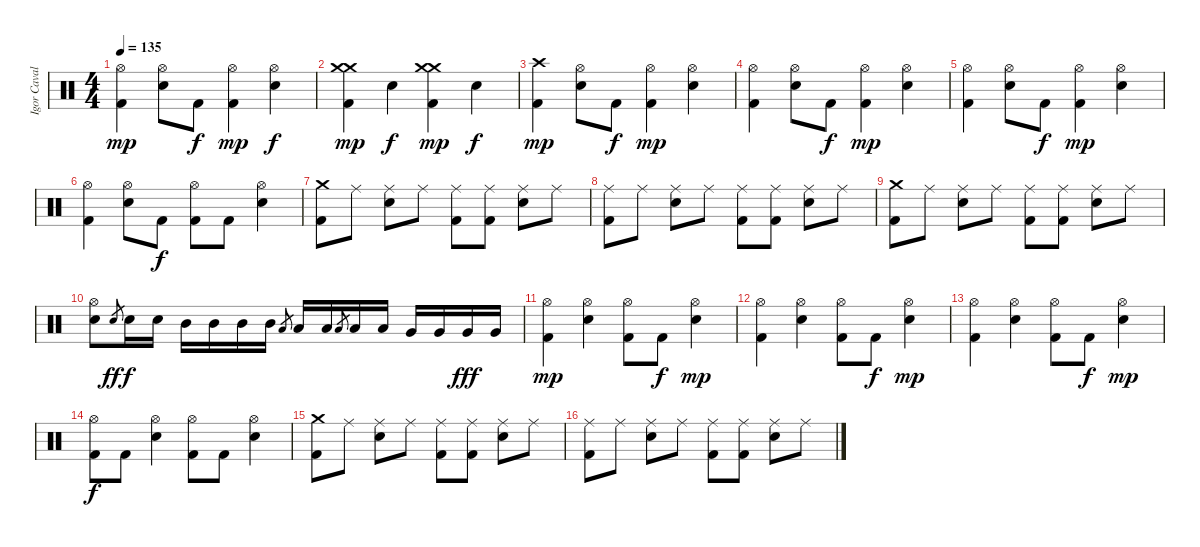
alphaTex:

\track ("Igor Cavalera" "Igor Caval") {instrument percussion}
\staff {score}
\articulation defaults
\ts (4 4)
\tempo 135
\clef neutral
\ks c
("Hi-Hat (open)" "Kick (hit) 2").4{dy mp} ("Hi-Hat (open)" "Electric Snare (hit)").8 "Kick (hit) 2".8{dy f} ("Hi-Hat (open)" "Kick (hit) 2").4{dy mp} ("Hi-Hat (open)" "Snare (hit) 2").4{dy f} |
("Crash medium (hit)" "Crash medium (hit)" "Kick (hit) 2").4{dy mp} "Electric Snare (hit)".4{dy f} ("Crash medium (hit)" "Crash medium (hit)" "Kick (hit) 2").4{dy mp} "Electric Snare (hit)".4{dy f} |
("Crash high (hit)" "Kick (hit) 2").4{dy mp} ("Hi-Hat (open)" "Electric Snare (hit)").8 "Kick (hit) 2".8{dy f} ("Hi-Hat (open)" "Kick (hit) 2").4{dy mp} ("Hi-Hat (open)" "Electric Snare (hit)").4 |
("Hi-Hat (open)" "Kick (hit) 2").4 ("Hi-Hat (open)" "Electric Snare (hit)").8 "Kick (hit) 2".8{dy f} ("Hi-Hat (open)" "Kick (hit) 2").4{dy mp} ("Hi-Hat (open)" "Electric Snare (hit)").4 |
("Hi-Hat (open)" "Kick (hit) 2").4 ("Hi-Hat (open)" "Electric Snare (hit)").8 "Kick (hit) 2".8{dy f} ("Hi-Hat (open)" "Kick (hit) 2").4{dy mp} ("Hi-Hat (open)" "Electric Snare (hit)").4 |
("Hi-Hat (open)" "Kick (hit) 2").4 ("Hi-Hat (open)" "Electric Snare (hit)").8 "Kick (hit) 2".8{dy f} ("Hi-Hat (open)" "Kick (hit) 2").8 "Kick (hit) 2".8 ("Hi-Hat (open)" "Electric Snare (hit)").4 |
("Crash medium (hit)" "Kick (hit) 2").8 "Ride (middle)".8 ("Ride (middle)" "Electric Snare (hit)").8 "Ride (middle)".8 ("Ride (middle)" "Kick (hit) 2").8 ("Ride (middle)" "Kick (hit) 2").8 ("Ride (middle)" "Electric Snare (hit)").8 "Ride (middle)".8 |
("Ride (middle)" "Kick (hit) 2").8 "Ride (middle)".8 ("Ride (middle)" "Electric Snare (hit)").8 "Ride (middle)".8 ("Ride (middle)" "Kick (hit) 2").8 ("Ride (middle)" "Kick (hit) 2").8 ("Ride (middle)" "Electric Snare (hit)").8 "Ride (middle)".8 |
("Crash medium (hit)" "Kick (hit) 2").8 "Ride (middle)".8 ("Ride (middle)" "Electric Snare (hit)").8 "Ride (middle)".8 ("Ride (middle)" "Kick (hit) 2").8 ("Ride (middle)" "Kick (hit) 2").8 ("Ride (middle)" "Electric Snare (hit)").8 "Ride (middle)".8 |
("Hi-Hat (open)" "Snare (hit) 2").8 "Snare (hit) 2".8{gr dy ff} "Snare (hit) 2".16{dy f} "Snare (hit) 2".16 "Mid Tom (hit)".16 "Mid Tom (hit)".16 "Mid Tom (hit)".16 "Mid Tom (hit)".16 "Low Tom (hit)".8{gr} "Low Tom (hit)".16 "Low Tom (hit)".16 "Low Tom (hit)".8{gr} "Low Tom (hit)".16 "Low Tom (hit)".16 "Very Low Tom (hit)".16 "Very Low Tom (hit)".16 "Very Low Tom (hit)".16{dy fff} "Very Low Tom (hit)".16 |
("Hi-Hat (open)" "Kick (hit) 2").4{dy mp} ("Hi-Hat (open)" "Electric Snare (hit)").4 ("Hi-Hat (open)" "Kick (hit) 2").8 "Kick (hit) 2".8{dy f} ("Hi-Hat (open)" "Electric Snare (hit)").4{dy mp} |
("Hi-Hat (open)" "Kick (hit) 2").4 ("Hi-Hat (open)" "Electric Snare (hit)").4 ("Hi-Hat (open)" "Kick (hit) 2").8 "Kick (hit) 2".8{dy f} ("Hi-Hat (open)" "Electric Snare (hit)").4{dy mp} |
("Hi-Hat (open)" "Kick (hit) 2").4 ("Hi-Hat (open)" "Electric Snare (hit)").4 ("Hi-Hat (open)" "Kick (hit) 2").8 "Kick (hit) 2".8{dy f} ("Hi-Hat (open)" "Electric Snare (hit)").4{dy mp} |
("Hi-Hat (open)" "Kick (hit) 2").8{dy f} "Kick (hit) 2".8 ("Hi-Hat (open)" "Electric Snare (hit)").4 ("Hi-Hat (open)" "Kick (hit) 2").8 "Kick (hit) 2".8 ("Hi-Hat (open)" "Electric Snare (hit)").4 |
("Crash medium (hit)" "Kick (hit) 2").8 "Ride (middle)".8 ("Ride (middle)" "Electric Snare (hit)").8 "Ride (middle)".8 ("Ride (middle)" "Kick (hit) 2").8 ("Ride (middle)" "Kick (hit) 2").8 ("Ride (middle)" "Electric Snare (hit)").8 "Ride (middle)".8 |
("Ride (middle)" "Kick (hit) 2").8 "Ride (middle)".8 ("Ride (middle)" "Electric Snare (hit)").8 "Ride (middle)".8 ("Ride (middle)" "Kick (hit) 2").8 ("Ride (middle)" "Kick (hit) 2").8 ("Ride (middle)" "Electric Snare (hit)").8 "Ride (middle)".8
